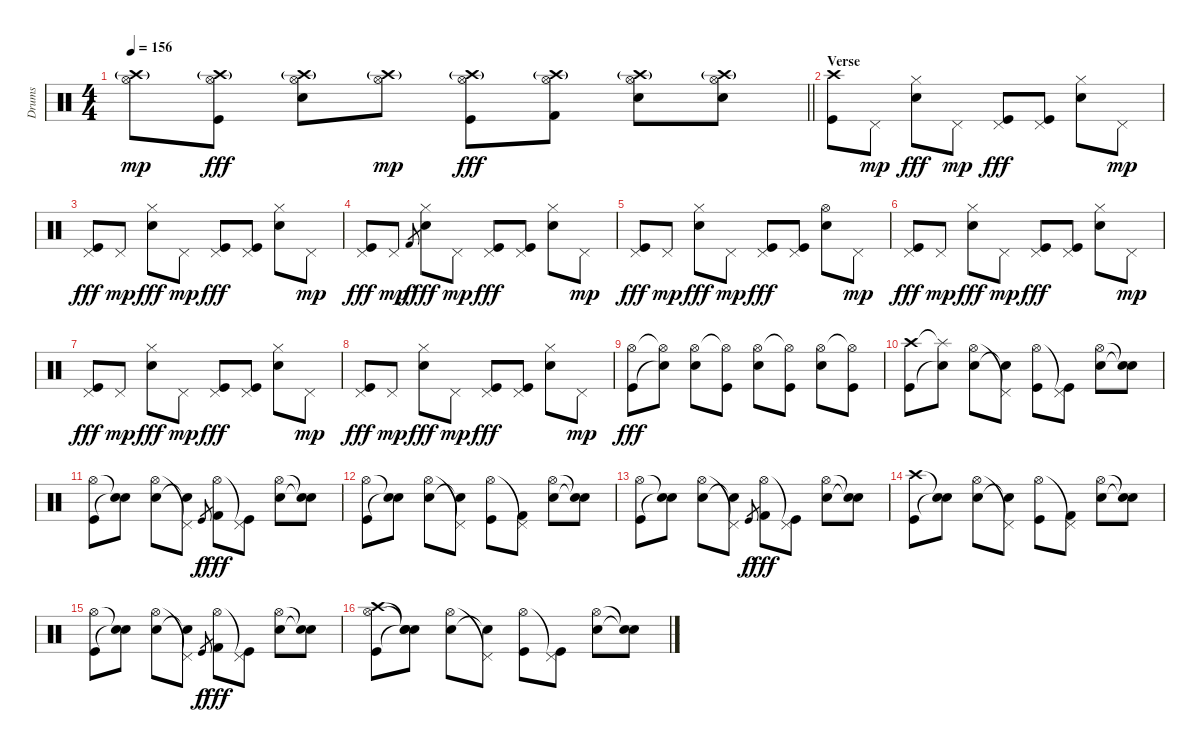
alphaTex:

\track ("Drums" "Drums") {instrument percussion}
\staff {score}
\articulation defaults
\ts (4 4)
\tempo 156
\clef neutral
\barLineRight lightlight
\ks c
("Crash high (hit)"{g} "Hi-Hat (open)").8{dy mp} ("Crash high (hit)"{g} "Hi-Hat (open)" "Kick (hit)").8{dy fff} ("Crash high (hit)"{g} "Hi-Hat (open)" "Snare (hit) 2").8 ("Crash high (hit)"{g} "Hi-Hat (open)").8{dy mp} ("Crash high (hit)"{g} "Hi-Hat (open)" "Kick (hit)").8{dy fff} ("Crash high (hit)"{g} "Hi-Hat (open)" "Kick (hit) 2").8 ("Crash high (hit)"{g} "Hi-Hat (open)" "Snare (hit) 2").8 ("Crash high (hit)"{g} "Hi-Hat (open)" "Snare (hit) 2").8 |
\section ("" "Verse")
("Crash high (hit)" "Kick (hit)").8 "Pedal Hi-Hat (hit)".8{dy mp} ("Hi-Hat (closed)" "Snare (hit) 2").8{dy fff} "Pedal Hi-Hat (hit)".8{dy mp} ("Pedal Hi-Hat (hit)" "Kick (hit)").8{dy fff} ("Pedal Hi-Hat (hit)" "Kick (hit)").8 ("Hi-Hat (closed)" "Snare (hit) 2").8 "Pedal Hi-Hat (hit)".8{dy mp} |
("Pedal Hi-Hat (hit)" "Kick (hit)").8{dy fff} "Pedal Hi-Hat (hit)".8{dy mp} ("Hi-Hat (closed)" "Snare (hit) 2").8{dy fff} "Pedal Hi-Hat (hit)".8{dy mp} ("Pedal Hi-Hat (hit)" "Kick (hit)").8{dy fff} ("Pedal Hi-Hat (hit)" "Kick (hit)").8 ("Hi-Hat (closed)" "Snare (hit) 2").8 "Pedal Hi-Hat (hit)".8{dy mp} |
("Pedal Hi-Hat (hit)" "Kick (hit)").8{dy fff} "Pedal Hi-Hat (hit)".8{dy mp} "Kick (hit) 2".8{gr dy f} ("Hi-Hat (closed)" "Snare (hit) 2").8{dy fff} "Pedal Hi-Hat (hit)".8{dy mp} ("Pedal Hi-Hat (hit)" "Kick (hit)").8{dy fff} ("Pedal Hi-Hat (hit)" "Kick (hit)").8 ("Hi-Hat (closed)" "Snare (hit) 2").8 "Pedal Hi-Hat (hit)".8{dy mp} |
("Pedal Hi-Hat (hit)" "Kick (hit)").8{dy fff} "Pedal Hi-Hat (hit)".8{dy mp} ("Hi-Hat (closed)" "Snare (hit) 2").8{dy fff} "Pedal Hi-Hat (hit)".8{dy mp} ("Pedal Hi-Hat (hit)" "Kick (hit)").8{dy fff} ("Pedal Hi-Hat (hit)" "Kick (hit)").8 ("Hi-Hat (open)" "Snare (hit) 2").8 "Pedal Hi-Hat (hit)".8{dy mp} |
("Pedal Hi-Hat (hit)" "Kick (hit)").8{dy fff} "Pedal Hi-Hat (hit)".8{dy mp} ("Hi-Hat (closed)" "Snare (hit) 2").8{dy fff} "Pedal Hi-Hat (hit)".8{dy mp} ("Pedal Hi-Hat (hit)" "Kick (hit)").8{dy fff} ("Pedal Hi-Hat (hit)" "Kick (hit)").8 ("Hi-Hat (closed)" "Snare (hit) 2").8 "Pedal Hi-Hat (hit)".8{dy mp} |
("Pedal Hi-Hat (hit)" "Kick (hit)").8{dy fff} "Pedal Hi-Hat (hit)".8{dy mp} ("Hi-Hat (closed)" "Snare (hit) 2").8{dy fff} "Pedal Hi-Hat (hit)".8{dy mp} ("Pedal Hi-Hat (hit)" "Kick (hit)").8{dy fff} ("Pedal Hi-Hat (hit)" "Kick (hit)").8 ("Hi-Hat (closed)" "Snare (hit) 2").8 "Pedal Hi-Hat (hit)".8{dy mp} |
("Pedal Hi-Hat (hit)" "Kick (hit)").8{dy fff} "Pedal Hi-Hat (hit)".8{dy mp} ("Hi-Hat (closed)" "Snare (hit) 2").8{dy fff} "Pedal Hi-Hat (hit)".8{dy mp} ("Pedal Hi-Hat (hit)" "Kick (hit)").8{dy fff} ("Pedal Hi-Hat (hit)" "Kick (hit)").8 ("Hi-Hat (closed)" "Snare (hit) 2").8 "Pedal Hi-Hat (hit)".8{dy mp} |
("Hi-Hat (open)" "Kick (hit)").8{dy fff} ("Hi-Hat (open)"{t} "Snare (hit)"{t}).8 ("Hi-Hat (open)" "Snare (hit) 2").8 ("Hi-Hat (open)"{t} "Kick (hit)").8 ("Hi-Hat (open)" "Snare (hit) 2").8 ("Hi-Hat (open)"{t} "Kick (hit)").8 ("Hi-Hat (open)" "Snare (hit) 2").8 ("Hi-Hat (open)"{t} "Kick (hit)").8 |
("Crash high (hit)" "Kick (hit)").8 ("Splash (hit)"{t} "Snare (hit)"{t}).8 ("Hi-Hat (open)" "Snare (hit) 2").8 ("Pedal Hi-Hat (hit)"{t} "Snare (hit)"{t}).8 ("Hi-Hat (open)" "Kick (hit)").8 ("Pedal Hi-Hat (hit)"{t} "Kick (hit)").8 ("Hi-Hat (open)" "Snare (hit) 2").8 ("Snare (hit)"{t} "Snare (hit)"{t}).8 |
("Hi-Hat (open)" "Kick (hit)").8 ("Snare (hit)"{t} "Snare (hit)"{t}).8 ("Hi-Hat (open)" "Snare (hit) 2").8 ("Pedal Hi-Hat (hit)"{t} "Snare (hit)"{t}).8 "Kick (hit)".8{gr dy f} ("Hi-Hat (open)" "Kick (hit) 2").8{dy fff} ("Pedal Hi-Hat (hit)"{t} "Kick (hit)").8 ("Hi-Hat (open)" "Snare (hit) 2").8 ("Snare (hit)"{t} "Snare (hit)"{t}).8 |
("Hi-Hat (open)" "Kick (hit)").8 ("Snare (hit)"{t} "Snare (hit)"{t}).8 ("Hi-Hat (open)" "Snare (hit) 2").8 ("Pedal Hi-Hat (hit)"{t} "Snare (hit)"{t}).8 ("Hi-Hat (open)" "Kick (hit)").8 ("Pedal Hi-Hat (hit)"{t} "Kick (hit) 2").8 ("Hi-Hat (open)" "Snare (hit) 2").8 ("Snare (hit)"{t} "Snare (hit)"{t}).8 |
("Hi-Hat (open)" "Kick (hit)").8 ("Snare (hit)"{t} "Snare (hit)"{t}).8 ("Hi-Hat (open)" "Snare (hit) 2").8 ("Pedal Hi-Hat (hit)"{t} "Snare (hit)"{t}).8 "Kick (hit)".8{gr dy f} ("Hi-Hat (open)" "Kick (hit) 2").8{dy fff} ("Pedal Hi-Hat (hit)"{t} "Kick (hit)").8 ("Hi-Hat (open)" "Snare (hit) 2").8 ("Snare (hit)"{t} "Snare (hit)"{t}).8 |
("Crash high (hit)" "Kick (hit)").8 ("Snare (hit)"{t} "Snare (hit)"{t}).8 ("Hi-Hat (open)" "Snare (hit) 2").8 ("Pedal Hi-Hat (hit)"{t} "Snare (hit)"{t}).8 ("Hi-Hat (open)" "Kick (hit)").8 ("Pedal Hi-Hat (hit)"{t} "Kick (hit) 2").8 ("Hi-Hat (open)" "Snare (hit) 2").8 ("Snare (hit)"{t} "Snare (hit)"{t}).8 |
("Hi-Hat (open)" "Kick (hit)").8 ("Snare (hit)"{t} "Snare (hit)"{t}).8 ("Hi-Hat (open)" "Snare (hit) 2").8 ("Pedal Hi-Hat (hit)"{t} "Snare (hit)"{t}).8 "Kick (hit)".8{gr dy f} ("Hi-Hat (open)" "Kick (hit) 2").8{dy fff} ("Pedal Hi-Hat (hit)"{t} "Kick (hit)").8 ("Hi-Hat (open)" "Snare (hit) 2").8 ("Snare (hit)"{t} "Snare (hit)"{t}).8 |
("Crash high (hit)" "Hi-Hat (open)" "Kick (hit)").8 ("Snare (hit)"{t} "Snare (hit)"{t} "Snare (hit)"{t}).8 ("Hi-Hat (open)" "Snare (hit) 2").8 ("Pedal Hi-Hat (hit)"{t} "Snare (hit)"{t}).8 ("Hi-Hat (open)" "Kick (hit)").8 ("Pedal Hi-Hat (hit)"{t} "Kick (hit)").8 ("Hi-Hat (open)" "Snare (hit) 2").8 ("Snare (hit)"{t} "Snare (hit)"{t}).8
